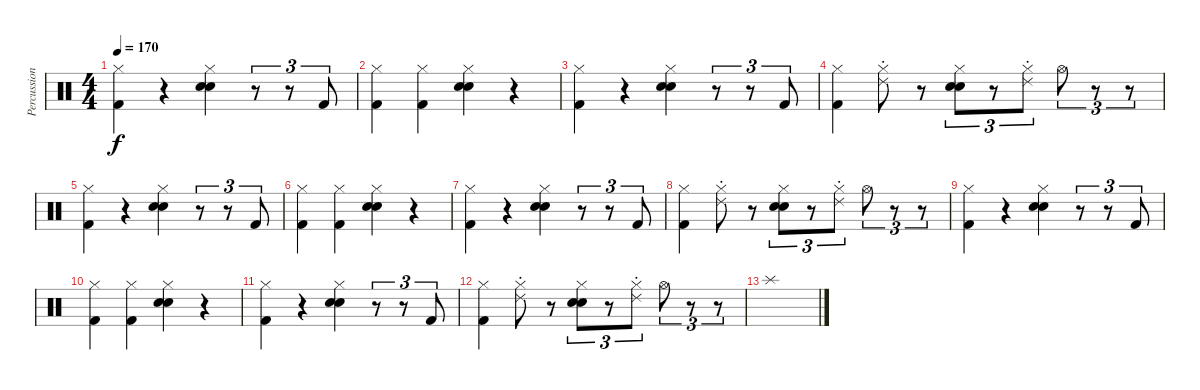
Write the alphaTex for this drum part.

\track ("Percussion" "Percussion") {instrument percussion}
\staff {score}
\articulation defaults
\ts (4 4)
\tempo 170
\clef neutral
\ks c
("Hi-Hat (closed)" "Kick (hit) 2").4{dy f} r.4 ("Hi-Hat (closed)" "Hand Clap (hit)" "Electric Snare (hit)").4 r.8{tu (3 2)} r.8{tu (3 2)} "Kick (hit) 2".8{tu (3 2)} |
("Hi-Hat (closed)" "Kick (hit) 2").4 ("Hi-Hat (closed)" "Kick (hit) 2").4 ("Hi-Hat (closed)" "Hand Clap (hit)" "Electric Snare (hit)").4 r.4 |
("Hi-Hat (closed)" "Kick (hit) 2").4 r.4 ("Hi-Hat (closed)" "Hand Clap (hit)" "Electric Snare (hit)").4 r.8{tu (3 2)} r.8{tu (3 2)} "Kick (hit) 2".8{tu (3 2)} |
("Hi-Hat (closed)" "Kick (hit) 2").4 ("Hi-Hat (closed)" "Ride (choke) 2").8 r.8 ("Hi-Hat (closed)" "Hand Clap (hit)" "Electric Snare (hit)").8{tu (3 2)} r.8{tu (3 2)} ("Hi-Hat (closed)" "Ride (choke) 2").8{tu (3 2)} "Hi-Hat (open)".8{tu (3 2)} r.8{tu (3 2)} r.8{tu (3 2)} |
("Hi-Hat (closed)" "Kick (hit) 2").4 r.4 ("Hi-Hat (closed)" "Hand Clap (hit)" "Electric Snare (hit)").4 r.8{tu (3 2)} r.8{tu (3 2)} "Kick (hit) 2".8{tu (3 2)} |
("Hi-Hat (closed)" "Kick (hit) 2").4 ("Hi-Hat (closed)" "Kick (hit) 2").4 ("Hi-Hat (closed)" "Hand Clap (hit)" "Electric Snare (hit)").4 r.4 |
("Hi-Hat (closed)" "Kick (hit) 2").4 r.4 ("Hi-Hat (closed)" "Hand Clap (hit)" "Electric Snare (hit)").4 r.8{tu (3 2)} r.8{tu (3 2)} "Kick (hit) 2".8{tu (3 2)} |
("Hi-Hat (closed)" "Kick (hit) 2").4 ("Hi-Hat (closed)" "Ride (choke) 2").8 r.8 ("Hi-Hat (closed)" "Hand Clap (hit)" "Electric Snare (hit)").8{tu (3 2)} r.8{tu (3 2)} ("Hi-Hat (closed)" "Ride (choke) 2").8{tu (3 2)} "Hi-Hat (open)".8{tu (3 2)} r.8{tu (3 2)} r.8{tu (3 2)} |
("Hi-Hat (closed)" "Kick (hit) 2").4 r.4 ("Hi-Hat (closed)" "Hand Clap (hit)" "Electric Snare (hit)").4 r.8{tu (3 2)} r.8{tu (3 2)} "Kick (hit) 2".8{tu (3 2)} |
("Hi-Hat (closed)" "Kick (hit) 2").4 ("Hi-Hat (closed)" "Kick (hit) 2").4 ("Hi-Hat (closed)" "Hand Clap (hit)" "Electric Snare (hit)").4 r.4 |
("Hi-Hat (closed)" "Kick (hit) 2").4 r.4 ("Hi-Hat (closed)" "Hand Clap (hit)" "Electric Snare (hit)").4 r.8{tu (3 2)} r.8{tu (3 2)} "Kick (hit) 2".8{tu (3 2)} |
("Hi-Hat (closed)" "Kick (hit) 2").4 ("Hi-Hat (closed)" "Ride (choke) 2").8 r.8 ("Hi-Hat (closed)" "Hand Clap (hit)" "Electric Snare (hit)").8{tu (3 2)} r.8{tu (3 2)} ("Hi-Hat (closed)" "Ride (choke) 2").8{tu (3 2)} "Hi-Hat (open)".8{tu (3 2)} r.8{tu (3 2)} r.8{tu (3 2)} |
"Splash (hit)".1
